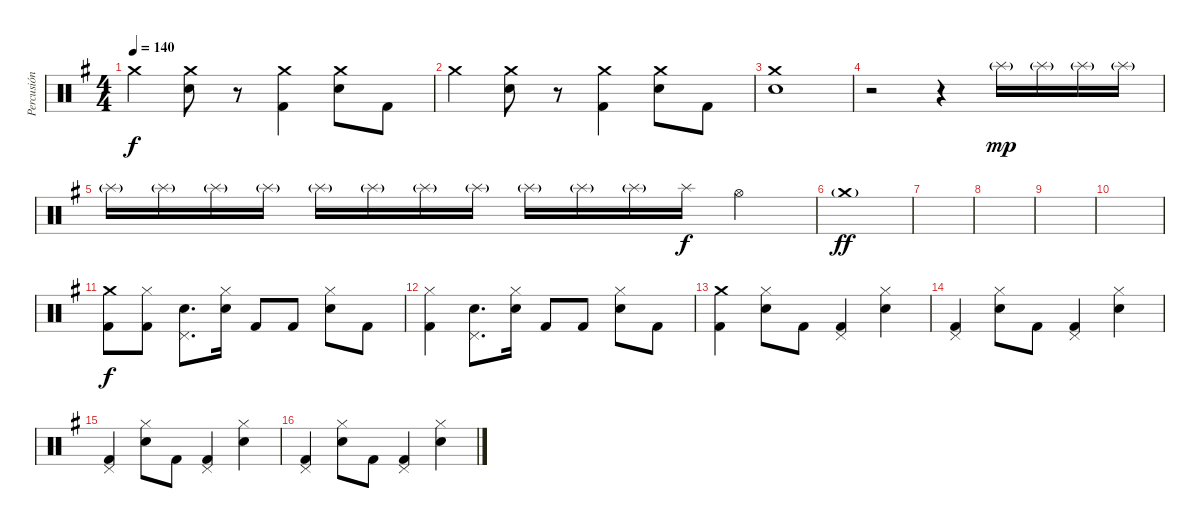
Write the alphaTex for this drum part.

\track ("Percusión" "Percusión") {instrument percussion}
\staff {score}
\articulation defaults
\ts (4 4)
\tempo 140
\clef neutral
\ks g "Crash medium (hit)".4{dy f}
("Crash medium (hit)" "Snare (hit) 2").8 r.8 ("Crash medium (hit)" "Kick (hit) 2").4 ("Crash medium (hit)" "Snare (hit) 2").8 "Kick (hit) 2".8 |
"Crash medium (hit)".4 ("Crash medium (hit)" "Snare (hit) 2").8 r.8 ("Crash medium (hit)" "Kick (hit) 2").4 ("Crash medium (hit)" "Snare (hit) 2").8 "Kick (hit) 2".8 |
("Crash medium (hit)" "Snare (hit) 2").1 |
r.2 r.4 "Splash (hit)"{g}.16{dy mp} "Splash (hit)"{g}.16 "Splash (hit)"{g}.16 "Splash (hit)"{g}.16 |
"Splash (hit)"{g}.16{volume 15} "Splash (hit)"{g}.16 "Splash (hit)"{g}.16 "Splash (hit)"{g}.16 "Splash (hit)"{g}.16 "Splash (hit)"{g}.16 "Splash (hit)"{g}.16 "Splash (hit)"{g}.16 "Splash (hit)"{g}.16 "Splash (hit)"{g}.16 "Splash (hit)"{g}.16 "Splash (hit)".16{dy f} "Hi-Hat (open)".4 |
"Crash medium (hit)"{g}.1{dy ff} |
|
|
|
|
("Crash medium (hit)" "Kick (hit) 2").8{dy f} ("Hi-Hat (closed)" "Kick (hit) 2").8 ("Pedal Hi-Hat (hit)" "Snare (hit) 2").8{d} ("Hi-Hat (closed)" "Snare (hit) 2").16 "Kick (hit) 2".8 "Kick (hit) 2".8 ("Hi-Hat (closed)" "Snare (hit) 2").8 "Kick (hit) 2".8 |
("Hi-Hat (closed)" "Kick (hit) 2").4 ("Pedal Hi-Hat (hit)" "Snare (hit) 2").8{d} ("Hi-Hat (closed)" "Snare (hit) 2").16 "Kick (hit) 2".8 "Kick (hit) 2".8 ("Hi-Hat (closed)" "Snare (hit) 2").8 "Kick (hit) 2".8 |
("Crash medium (hit)" "Kick (hit) 2").4 ("Hi-Hat (closed)" "Snare (hit) 2").8 "Kick (hit) 2".8 ("Pedal Hi-Hat (hit)" "Kick (hit) 2").4 ("Hi-Hat (closed)" "Snare (hit) 2").4 |
("Pedal Hi-Hat (hit)" "Kick (hit) 2").4 ("Hi-Hat (closed)" "Snare (hit) 2").8 "Kick (hit) 2".8 ("Pedal Hi-Hat (hit)" "Kick (hit) 2").4 ("Hi-Hat (closed)" "Snare (hit) 2").4 |
("Pedal Hi-Hat (hit)" "Kick (hit) 2").4 ("Hi-Hat (closed)" "Snare (hit) 2").8 "Kick (hit) 2".8 ("Pedal Hi-Hat (hit)" "Kick (hit) 2").4 ("Hi-Hat (closed)" "Snare (hit) 2").4 |
("Pedal Hi-Hat (hit)" "Kick (hit) 2").4 ("Hi-Hat (closed)" "Snare (hit) 2").8 "Kick (hit) 2".8 ("Pedal Hi-Hat (hit)" "Kick (hit) 2").4 ("Hi-Hat (closed)" "Snare (hit) 2").4
